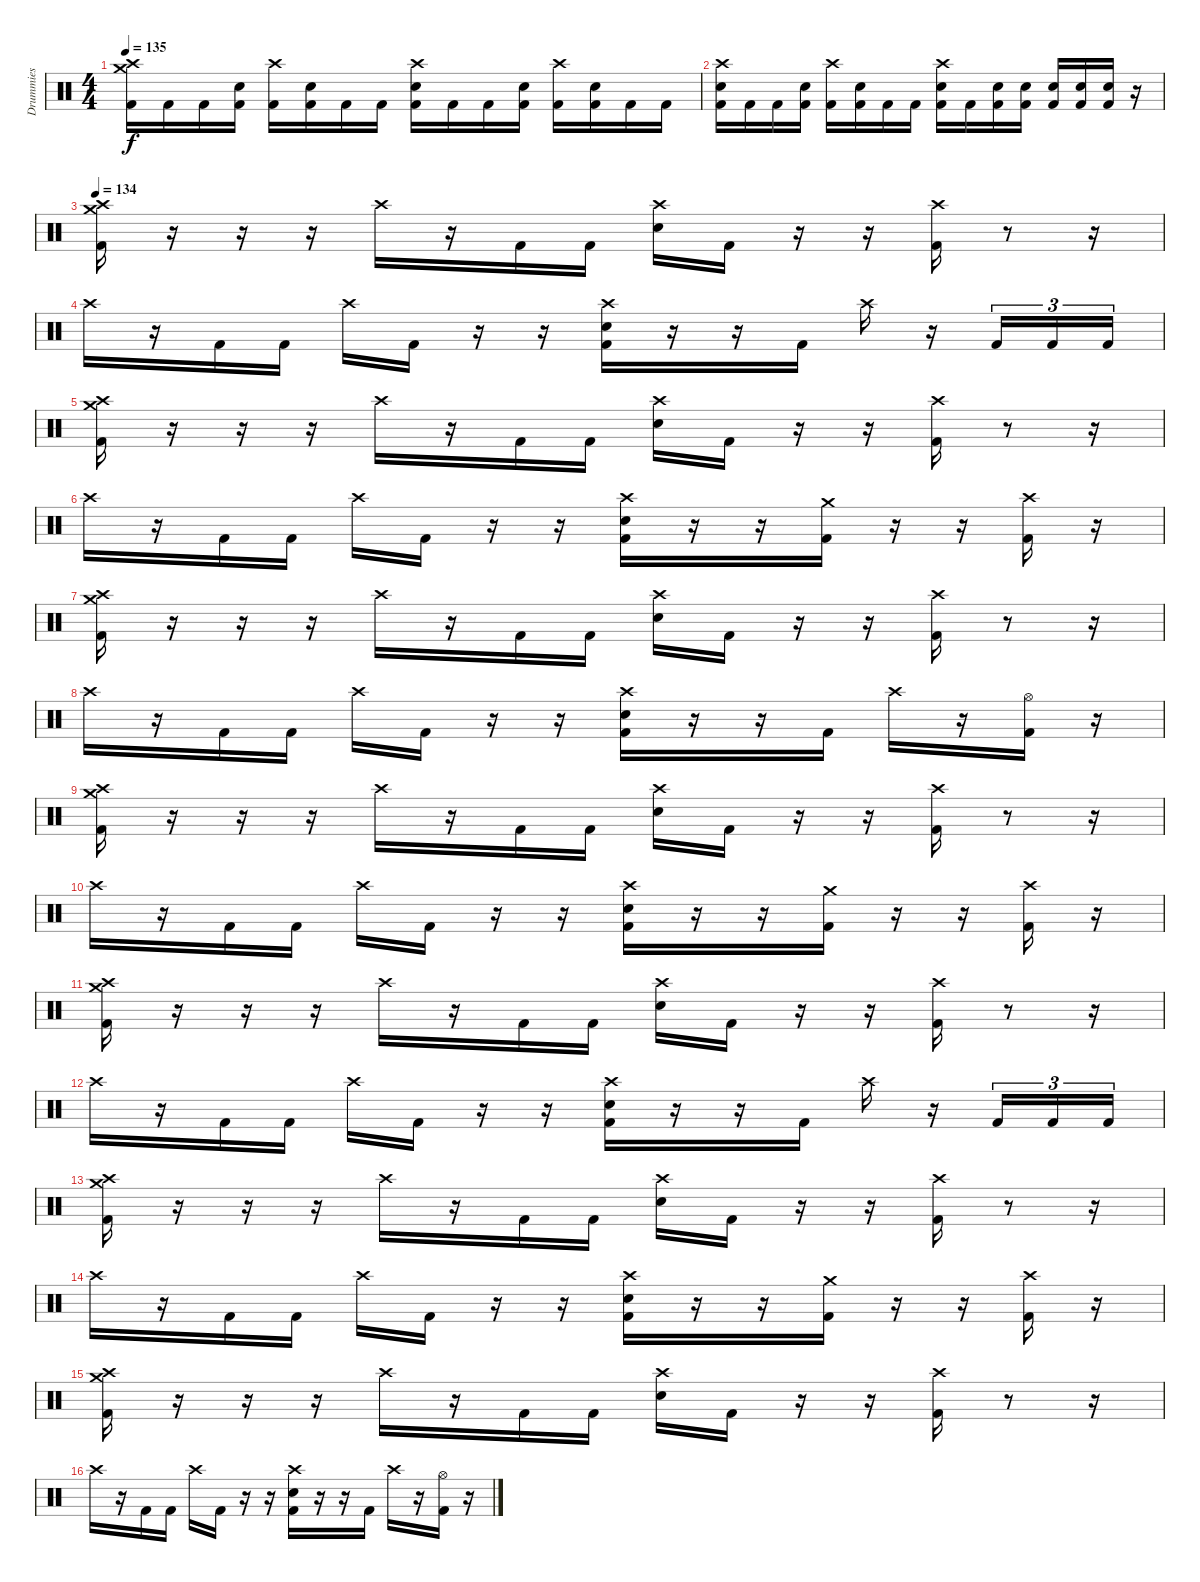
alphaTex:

\track ("Drummies" "Drummies") {instrument percussion}
\staff {score}
\articulation defaults
\ts (4 4)
\tempo 135
\clef neutral
\ks c
("Crash high (hit)" "Crash medium (hit)" "Kick (hit) 2").16{dy f} "Kick (hit) 2".16 "Kick (hit) 2".16 ("Electric Snare (hit)" "Kick (hit) 2").16 ("Crash high (hit)" "Kick (hit) 2").16 ("Electric Snare (hit)" "Kick (hit) 2").16 "Kick (hit) 2".16 "Kick (hit) 2".16 ("Crash high (hit)" "Electric Snare (hit)" "Kick (hit) 2").16 "Kick (hit) 2".16 "Kick (hit) 2".16 ("Electric Snare (hit)" "Kick (hit) 2").16 ("Crash high (hit)" "Kick (hit) 2").16 ("Electric Snare (hit)" "Kick (hit) 2").16 "Kick (hit) 2".16 "Kick (hit) 2".16 |
("Crash high (hit)" "Electric Snare (hit)" "Kick (hit) 2").16 "Kick (hit) 2".16 "Kick (hit) 2".16 ("Electric Snare (hit)" "Kick (hit) 2").16 ("Crash high (hit)" "Kick (hit) 2").16 ("Electric Snare (hit)" "Kick (hit) 2").16 "Kick (hit) 2".16 "Kick (hit) 2".16 ("Crash high (hit)" "Electric Snare (hit)" "Kick (hit) 2").16 "Kick (hit) 2".16 ("Electric Snare (hit)" "Kick (hit) 2").16 ("Electric Snare (hit)" "Kick (hit) 2").16 ("Electric Snare (hit)" "Kick (hit) 2").16 ("Electric Snare (hit)" "Kick (hit) 2").16 ("Electric Snare (hit)" "Kick (hit) 2").16 r.16 |
\tempo 134
("Crash high (hit)" "Crash medium (hit)" "Kick (hit) 2").16 r.16 r.16 r.16 "Crash high (hit)".16 r.16 "Kick (hit) 2".16 "Kick (hit) 2".16 ("Crash high (hit)" "Electric Snare (hit)").16 "Kick (hit) 2".16 r.16 r.16 ("Crash high (hit)" "Kick (hit) 2").16 r.8 r.16 |
"Crash high (hit)".16 r.16 "Kick (hit) 2".16 "Kick (hit) 2".16 "Crash high (hit)".16 "Kick (hit) 2".16 r.16 r.16 ("Crash high (hit)" "Electric Snare (hit)" "Kick (hit) 2").16 r.16 r.16 "Kick (hit) 2".16 "Crash high (hit)".16 r.16 "Kick (hit) 2".16{tu (3 2)} "Kick (hit) 2".16{tu (3 2)} "Kick (hit) 2".16{tu (3 2)} |
("Crash high (hit)" "Crash medium (hit)" "Kick (hit) 2").16 r.16 r.16 r.16 "Crash high (hit)".16 r.16 "Kick (hit) 2".16 "Kick (hit) 2".16 ("Crash high (hit)" "Electric Snare (hit)").16 "Kick (hit) 2".16 r.16 r.16 ("Crash high (hit)" "Kick (hit) 2").16 r.8 r.16 |
"Crash high (hit)".16 r.16 "Kick (hit) 2".16 "Kick (hit) 2".16 "Crash high (hit)".16 "Kick (hit) 2".16 r.16 r.16 ("Crash high (hit)" "Electric Snare (hit)" "Kick (hit) 2").16 r.16 r.16 ("Crash medium (hit)" "Kick (hit) 2").16 r.16 r.16 ("Crash high (hit)" "Kick (hit) 2").16 r.16 |
("Crash high (hit)" "Crash medium (hit)" "Kick (hit) 2").16 r.16 r.16 r.16 "Crash high (hit)".16 r.16 "Kick (hit) 2".16 "Kick (hit) 2".16 ("Crash high (hit)" "Electric Snare (hit)").16 "Kick (hit) 2".16 r.16 r.16 ("Crash high (hit)" "Kick (hit) 2").16 r.8 r.16 |
"Crash high (hit)".16 r.16 "Kick (hit) 2".16 "Kick (hit) 2".16 "Crash high (hit)".16 "Kick (hit) 2".16 r.16 r.16 ("Crash high (hit)" "Electric Snare (hit)" "Kick (hit) 2").16 r.16 r.16 "Kick (hit) 2".16 "Crash high (hit)".16 r.16 ("Hi-Hat (open)" "Kick (hit) 2").16 r.16 |
("Crash high (hit)" "Crash medium (hit)" "Kick (hit) 2").16 r.16 r.16 r.16 "Crash high (hit)".16 r.16 "Kick (hit) 2".16 "Kick (hit) 2".16 ("Crash high (hit)" "Electric Snare (hit)").16 "Kick (hit) 2".16 r.16 r.16 ("Crash high (hit)" "Kick (hit) 2").16 r.8 r.16 |
"Crash high (hit)".16 r.16 "Kick (hit) 2".16 "Kick (hit) 2".16 "Crash high (hit)".16 "Kick (hit) 2".16 r.16 r.16 ("Crash high (hit)" "Electric Snare (hit)" "Kick (hit) 2").16 r.16 r.16 ("Crash medium (hit)" "Kick (hit) 2").16 r.16 r.16 ("Crash high (hit)" "Kick (hit) 2").16 r.16 |
("Crash high (hit)" "Crash medium (hit)" "Kick (hit) 2").16 r.16 r.16 r.16 "Crash high (hit)".16 r.16 "Kick (hit) 2".16 "Kick (hit) 2".16 ("Crash high (hit)" "Electric Snare (hit)").16 "Kick (hit) 2".16 r.16 r.16 ("Crash high (hit)" "Kick (hit) 2").16 r.8 r.16 |
"Crash high (hit)".16 r.16 "Kick (hit) 2".16 "Kick (hit) 2".16 "Crash high (hit)".16 "Kick (hit) 2".16 r.16 r.16 ("Crash high (hit)" "Electric Snare (hit)" "Kick (hit) 2").16 r.16 r.16 "Kick (hit) 2".16 "Crash high (hit)".16 r.16 "Kick (hit) 2".16{tu (3 2)} "Kick (hit) 2".16{tu (3 2)} "Kick (hit) 2".16{tu (3 2)} |
("Crash high (hit)" "Crash medium (hit)" "Kick (hit) 2").16 r.16 r.16 r.16 "Crash high (hit)".16 r.16 "Kick (hit) 2".16 "Kick (hit) 2".16 ("Crash high (hit)" "Electric Snare (hit)").16 "Kick (hit) 2".16 r.16 r.16 ("Crash high (hit)" "Kick (hit) 2").16 r.8 r.16 |
"Crash high (hit)".16 r.16 "Kick (hit) 2".16 "Kick (hit) 2".16 "Crash high (hit)".16 "Kick (hit) 2".16 r.16 r.16 ("Crash high (hit)" "Electric Snare (hit)" "Kick (hit) 2").16 r.16 r.16 ("Crash medium (hit)" "Kick (hit) 2").16 r.16 r.16 ("Crash high (hit)" "Kick (hit) 2").16 r.16 |
("Crash high (hit)" "Crash medium (hit)" "Kick (hit) 2").16 r.16 r.16 r.16 "Crash high (hit)".16 r.16 "Kick (hit) 2".16 "Kick (hit) 2".16 ("Crash high (hit)" "Electric Snare (hit)").16 "Kick (hit) 2".16 r.16 r.16 ("Crash high (hit)" "Kick (hit) 2").16 r.8 r.16 |
"Crash high (hit)".16 r.16 "Kick (hit) 2".16 "Kick (hit) 2".16 "Crash high (hit)".16 "Kick (hit) 2".16 r.16 r.16 ("Crash high (hit)" "Electric Snare (hit)" "Kick (hit) 2").16 r.16 r.16 "Kick (hit) 2".16 "Crash high (hit)".16 r.16 ("Hi-Hat (open)" "Kick (hit) 2").16 r.16
